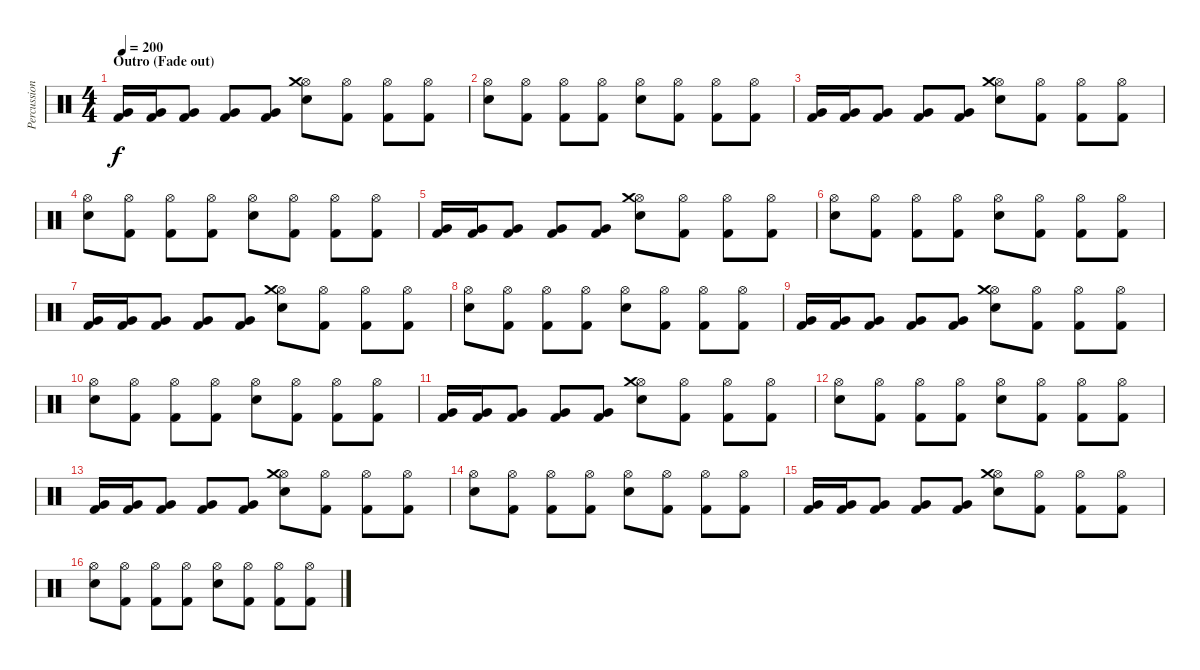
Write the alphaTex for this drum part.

\track ("Percussion" "Percussion") {instrument percussion}
\staff {score}
\articulation defaults
\ts (4 4)
\section ("" "Outro (Fade out)")
\tempo 200
\clef neutral
\ks c
("Very Low Tom (hit)" "Kick (hit) 2").16{dy f} ("Very Low Tom (hit)" "Kick (hit) 2").16 ("Very Low Tom (hit)" "Kick (hit) 2").8 ("Very Low Tom (hit)" "Kick (hit) 2").8 ("Very Low Tom (hit)" "Kick (hit) 2").8 ("Electric Snare (hit)" "Hi-Hat (open)" "Crash medium (hit)").8 ("Kick (hit) 2" "Hi-Hat (open)").8 ("Kick (hit) 2" "Hi-Hat (open)").8 ("Kick (hit) 2" "Hi-Hat (open)").8 |
("Electric Snare (hit)" "Hi-Hat (open)").8 ("Kick (hit) 2" "Hi-Hat (open)").8 ("Kick (hit) 2" "Hi-Hat (open)").8 ("Kick (hit) 2" "Hi-Hat (open)").8 ("Electric Snare (hit)" "Hi-Hat (open)").8 ("Kick (hit) 2" "Hi-Hat (open)").8 ("Kick (hit) 2" "Hi-Hat (open)").8 ("Kick (hit) 2" "Hi-Hat (open)").8 |
("Very Low Tom (hit)" "Kick (hit) 2").16 ("Very Low Tom (hit)" "Kick (hit) 2").16 ("Very Low Tom (hit)" "Kick (hit) 2").8 ("Very Low Tom (hit)" "Kick (hit) 2").8 ("Very Low Tom (hit)" "Kick (hit) 2").8 ("Electric Snare (hit)" "Hi-Hat (open)" "Crash medium (hit)").8 ("Kick (hit) 2" "Hi-Hat (open)").8 ("Kick (hit) 2" "Hi-Hat (open)").8 ("Kick (hit) 2" "Hi-Hat (open)").8 |
("Electric Snare (hit)" "Hi-Hat (open)").8 ("Kick (hit) 2" "Hi-Hat (open)").8 ("Kick (hit) 2" "Hi-Hat (open)").8 ("Kick (hit) 2" "Hi-Hat (open)").8 ("Electric Snare (hit)" "Hi-Hat (open)").8 ("Kick (hit) 2" "Hi-Hat (open)").8 ("Kick (hit) 2" "Hi-Hat (open)").8 ("Kick (hit) 2" "Hi-Hat (open)").8 |
("Very Low Tom (hit)" "Kick (hit) 2").16 ("Very Low Tom (hit)" "Kick (hit) 2").16 ("Very Low Tom (hit)" "Kick (hit) 2").8 ("Very Low Tom (hit)" "Kick (hit) 2").8 ("Very Low Tom (hit)" "Kick (hit) 2").8 ("Electric Snare (hit)" "Hi-Hat (open)" "Crash medium (hit)").8 ("Kick (hit) 2" "Hi-Hat (open)").8 ("Kick (hit) 2" "Hi-Hat (open)").8 ("Kick (hit) 2" "Hi-Hat (open)").8 |
("Electric Snare (hit)" "Hi-Hat (open)").8 ("Kick (hit) 2" "Hi-Hat (open)").8 ("Kick (hit) 2" "Hi-Hat (open)").8 ("Kick (hit) 2" "Hi-Hat (open)").8 ("Electric Snare (hit)" "Hi-Hat (open)").8 ("Kick (hit) 2" "Hi-Hat (open)").8 ("Kick (hit) 2" "Hi-Hat (open)").8 ("Kick (hit) 2" "Hi-Hat (open)").8 |
("Very Low Tom (hit)" "Kick (hit) 2").16 ("Very Low Tom (hit)" "Kick (hit) 2").16 ("Very Low Tom (hit)" "Kick (hit) 2").8 ("Very Low Tom (hit)" "Kick (hit) 2").8 ("Very Low Tom (hit)" "Kick (hit) 2").8 ("Electric Snare (hit)" "Hi-Hat (open)" "Crash medium (hit)").8 ("Kick (hit) 2" "Hi-Hat (open)").8 ("Kick (hit) 2" "Hi-Hat (open)").8 ("Kick (hit) 2" "Hi-Hat (open)").8 |
("Electric Snare (hit)" "Hi-Hat (open)").8 ("Kick (hit) 2" "Hi-Hat (open)").8 ("Kick (hit) 2" "Hi-Hat (open)").8 ("Kick (hit) 2" "Hi-Hat (open)").8 ("Electric Snare (hit)" "Hi-Hat (open)").8 ("Kick (hit) 2" "Hi-Hat (open)").8 ("Kick (hit) 2" "Hi-Hat (open)").8 ("Kick (hit) 2" "Hi-Hat (open)").8 |
("Very Low Tom (hit)" "Kick (hit) 2").16 ("Very Low Tom (hit)" "Kick (hit) 2").16 ("Very Low Tom (hit)" "Kick (hit) 2").8 ("Very Low Tom (hit)" "Kick (hit) 2").8 ("Very Low Tom (hit)" "Kick (hit) 2").8 ("Electric Snare (hit)" "Hi-Hat (open)" "Crash medium (hit)").8 ("Kick (hit) 2" "Hi-Hat (open)").8 ("Kick (hit) 2" "Hi-Hat (open)").8 ("Kick (hit) 2" "Hi-Hat (open)").8 |
("Electric Snare (hit)" "Hi-Hat (open)").8 ("Kick (hit) 2" "Hi-Hat (open)").8 ("Kick (hit) 2" "Hi-Hat (open)").8 ("Kick (hit) 2" "Hi-Hat (open)").8 ("Electric Snare (hit)" "Hi-Hat (open)").8 ("Kick (hit) 2" "Hi-Hat (open)").8 ("Kick (hit) 2" "Hi-Hat (open)").8 ("Kick (hit) 2" "Hi-Hat (open)").8 |
("Very Low Tom (hit)" "Kick (hit) 2").16 ("Very Low Tom (hit)" "Kick (hit) 2").16 ("Very Low Tom (hit)" "Kick (hit) 2").8 ("Very Low Tom (hit)" "Kick (hit) 2").8 ("Very Low Tom (hit)" "Kick (hit) 2").8 ("Electric Snare (hit)" "Hi-Hat (open)" "Crash medium (hit)").8 ("Kick (hit) 2" "Hi-Hat (open)").8 ("Kick (hit) 2" "Hi-Hat (open)").8 ("Kick (hit) 2" "Hi-Hat (open)").8 |
("Electric Snare (hit)" "Hi-Hat (open)").8 ("Kick (hit) 2" "Hi-Hat (open)").8 ("Kick (hit) 2" "Hi-Hat (open)").8 ("Kick (hit) 2" "Hi-Hat (open)").8 ("Electric Snare (hit)" "Hi-Hat (open)").8 ("Kick (hit) 2" "Hi-Hat (open)").8 ("Kick (hit) 2" "Hi-Hat (open)").8 ("Kick (hit) 2" "Hi-Hat (open)").8 |
("Very Low Tom (hit)" "Kick (hit) 2").16 ("Very Low Tom (hit)" "Kick (hit) 2").16 ("Very Low Tom (hit)" "Kick (hit) 2").8 ("Very Low Tom (hit)" "Kick (hit) 2").8 ("Very Low Tom (hit)" "Kick (hit) 2").8 ("Electric Snare (hit)" "Hi-Hat (open)" "Crash medium (hit)").8 ("Kick (hit) 2" "Hi-Hat (open)").8 ("Kick (hit) 2" "Hi-Hat (open)").8 ("Kick (hit) 2" "Hi-Hat (open)").8 |
("Electric Snare (hit)" "Hi-Hat (open)").8 ("Kick (hit) 2" "Hi-Hat (open)").8 ("Kick (hit) 2" "Hi-Hat (open)").8 ("Kick (hit) 2" "Hi-Hat (open)").8 ("Electric Snare (hit)" "Hi-Hat (open)").8 ("Kick (hit) 2" "Hi-Hat (open)").8 ("Kick (hit) 2" "Hi-Hat (open)").8 ("Kick (hit) 2" "Hi-Hat (open)").8 |
("Very Low Tom (hit)" "Kick (hit) 2").16 ("Very Low Tom (hit)" "Kick (hit) 2").16 ("Very Low Tom (hit)" "Kick (hit) 2").8 ("Very Low Tom (hit)" "Kick (hit) 2").8 ("Very Low Tom (hit)" "Kick (hit) 2").8 ("Electric Snare (hit)" "Hi-Hat (open)" "Crash medium (hit)").8 ("Kick (hit) 2" "Hi-Hat (open)").8 ("Kick (hit) 2" "Hi-Hat (open)").8 ("Kick (hit) 2" "Hi-Hat (open)").8 |
("Electric Snare (hit)" "Hi-Hat (open)").8 ("Kick (hit) 2" "Hi-Hat (open)").8 ("Kick (hit) 2" "Hi-Hat (open)").8 ("Kick (hit) 2" "Hi-Hat (open)").8 ("Electric Snare (hit)" "Hi-Hat (open)").8 ("Kick (hit) 2" "Hi-Hat (open)").8 ("Kick (hit) 2" "Hi-Hat (open)").8 ("Kick (hit) 2" "Hi-Hat (open)").8
